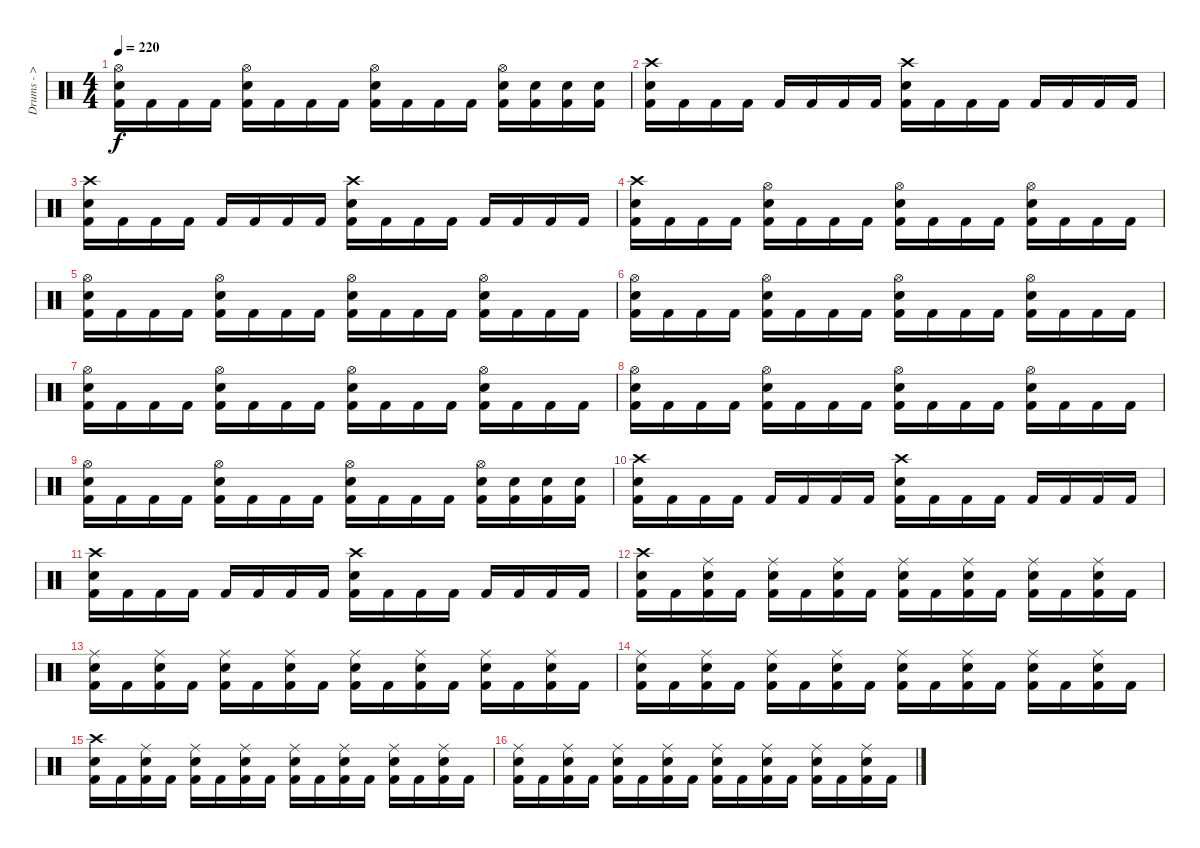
\track ("Drums - > Nicholas" "Drums - > ") {instrument percussion}
\staff {score}
\articulation defaults
\ts (4 4)
\tempo 220
\clef neutral
\ks c
("Kick (hit) 2" "Snare (hit) 2" "Hi-Hat (open)").16{dy f} "Kick (hit) 2".16 "Kick (hit) 2".16 "Kick (hit) 2".16 ("Kick (hit) 2" "Snare (hit) 2" "Hi-Hat (open)").16 "Kick (hit) 2".16 "Kick (hit) 2".16 "Kick (hit) 2".16 ("Kick (hit) 2" "Snare (hit) 2" "Hi-Hat (open)").16 "Kick (hit) 2".16 "Kick (hit) 2".16 "Kick (hit) 2".16 ("Kick (hit) 2" "Snare (hit) 2" "Hi-Hat (open)").16 ("Kick (hit) 2" "Snare (hit) 2").16 ("Kick (hit) 2" "Snare (hit) 2").16 ("Kick (hit) 2" "Snare (hit) 2").16 |
("Kick (hit) 2" "Snare (hit) 2" "Crash high (hit)").16 "Kick (hit) 2".16 "Kick (hit) 2".16 "Kick (hit) 2".16 "Kick (hit) 2".16 "Kick (hit) 2".16 "Kick (hit) 2".16 "Kick (hit) 2".16 ("Kick (hit) 2" "Snare (hit) 2" "Crash high (hit)").16 "Kick (hit) 2".16 "Kick (hit) 2".16 "Kick (hit) 2".16 "Kick (hit) 2".16 "Kick (hit) 2".16 "Kick (hit) 2".16 "Kick (hit) 2".16 |
("Kick (hit) 2" "Snare (hit) 2" "Crash high (hit)").16 "Kick (hit) 2".16 "Kick (hit) 2".16 "Kick (hit) 2".16 "Kick (hit) 2".16 "Kick (hit) 2".16 "Kick (hit) 2".16 "Kick (hit) 2".16 ("Kick (hit) 2" "Snare (hit) 2" "Crash high (hit)").16 "Kick (hit) 2".16 "Kick (hit) 2".16 "Kick (hit) 2".16 "Kick (hit) 2".16 "Kick (hit) 2".16 "Kick (hit) 2".16 "Kick (hit) 2".16 |
("Kick (hit) 2" "Snare (hit) 2" "Crash high (hit)").16 "Kick (hit) 2".16 "Kick (hit) 2".16 "Kick (hit) 2".16 ("Kick (hit) 2" "Snare (hit) 2" "Hi-Hat (open)").16 "Kick (hit) 2".16 "Kick (hit) 2".16 "Kick (hit) 2".16 ("Kick (hit) 2" "Snare (hit) 2" "Hi-Hat (open)").16 "Kick (hit) 2".16 "Kick (hit) 2".16 "Kick (hit) 2".16 ("Kick (hit) 2" "Snare (hit) 2" "Hi-Hat (open)").16 "Kick (hit) 2".16 "Kick (hit) 2".16 "Kick (hit) 2".16 |
("Kick (hit) 2" "Snare (hit) 2" "Hi-Hat (open)").16 "Kick (hit) 2".16 "Kick (hit) 2".16 "Kick (hit) 2".16 ("Kick (hit) 2" "Snare (hit) 2" "Hi-Hat (open)").16 "Kick (hit) 2".16 "Kick (hit) 2".16 "Kick (hit) 2".16 ("Kick (hit) 2" "Snare (hit) 2" "Hi-Hat (open)").16 "Kick (hit) 2".16 "Kick (hit) 2".16 "Kick (hit) 2".16 ("Kick (hit) 2" "Snare (hit) 2" "Hi-Hat (open)").16 "Kick (hit) 2".16 "Kick (hit) 2".16 "Kick (hit) 2".16 |
("Kick (hit) 2" "Snare (hit) 2" "Hi-Hat (open)").16 "Kick (hit) 2".16 "Kick (hit) 2".16 "Kick (hit) 2".16 ("Kick (hit) 2" "Snare (hit) 2" "Hi-Hat (open)").16 "Kick (hit) 2".16 "Kick (hit) 2".16 "Kick (hit) 2".16 ("Kick (hit) 2" "Snare (hit) 2" "Hi-Hat (open)").16 "Kick (hit) 2".16 "Kick (hit) 2".16 "Kick (hit) 2".16 ("Kick (hit) 2" "Snare (hit) 2" "Hi-Hat (open)").16 "Kick (hit) 2".16 "Kick (hit) 2".16 "Kick (hit) 2".16 |
("Kick (hit) 2" "Snare (hit) 2" "Hi-Hat (open)").16 "Kick (hit) 2".16 "Kick (hit) 2".16 "Kick (hit) 2".16 ("Kick (hit) 2" "Snare (hit) 2" "Hi-Hat (open)").16 "Kick (hit) 2".16 "Kick (hit) 2".16 "Kick (hit) 2".16 ("Kick (hit) 2" "Snare (hit) 2" "Hi-Hat (open)").16 "Kick (hit) 2".16 "Kick (hit) 2".16 "Kick (hit) 2".16 ("Kick (hit) 2" "Snare (hit) 2" "Hi-Hat (open)").16 "Kick (hit) 2".16 "Kick (hit) 2".16 "Kick (hit) 2".16 |
("Kick (hit) 2" "Snare (hit) 2" "Hi-Hat (open)").16 "Kick (hit) 2".16 "Kick (hit) 2".16 "Kick (hit) 2".16 ("Kick (hit) 2" "Snare (hit) 2" "Hi-Hat (open)").16 "Kick (hit) 2".16 "Kick (hit) 2".16 "Kick (hit) 2".16 ("Kick (hit) 2" "Snare (hit) 2" "Hi-Hat (open)").16 "Kick (hit) 2".16 "Kick (hit) 2".16 "Kick (hit) 2".16 ("Kick (hit) 2" "Snare (hit) 2" "Hi-Hat (open)").16 "Kick (hit) 2".16 "Kick (hit) 2".16 "Kick (hit) 2".16 |
("Kick (hit) 2" "Snare (hit) 2" "Hi-Hat (open)").16 "Kick (hit) 2".16 "Kick (hit) 2".16 "Kick (hit) 2".16 ("Kick (hit) 2" "Snare (hit) 2" "Hi-Hat (open)").16 "Kick (hit) 2".16 "Kick (hit) 2".16 "Kick (hit) 2".16 ("Kick (hit) 2" "Snare (hit) 2" "Hi-Hat (open)").16 "Kick (hit) 2".16 "Kick (hit) 2".16 "Kick (hit) 2".16 ("Kick (hit) 2" "Snare (hit) 2" "Hi-Hat (open)").16 ("Kick (hit) 2" "Snare (hit) 2").16 ("Kick (hit) 2" "Snare (hit) 2").16 ("Kick (hit) 2" "Snare (hit) 2").16 |
("Kick (hit) 2" "Snare (hit) 2" "Crash high (hit)").16 "Kick (hit) 2".16 "Kick (hit) 2".16 "Kick (hit) 2".16 "Kick (hit) 2".16 "Kick (hit) 2".16 "Kick (hit) 2".16 "Kick (hit) 2".16 ("Kick (hit) 2" "Snare (hit) 2" "Crash high (hit)").16 "Kick (hit) 2".16 "Kick (hit) 2".16 "Kick (hit) 2".16 "Kick (hit) 2".16 "Kick (hit) 2".16 "Kick (hit) 2".16 "Kick (hit) 2".16 |
("Kick (hit) 2" "Snare (hit) 2" "Crash high (hit)").16 "Kick (hit) 2".16 "Kick (hit) 2".16 "Kick (hit) 2".16 "Kick (hit) 2".16 "Kick (hit) 2".16 "Kick (hit) 2".16 "Kick (hit) 2".16 ("Kick (hit) 2" "Snare (hit) 2" "Crash high (hit)").16 "Kick (hit) 2".16 "Kick (hit) 2".16 "Kick (hit) 2".16 "Kick (hit) 2".16 "Kick (hit) 2".16 "Kick (hit) 2".16 "Kick (hit) 2".16 |
("Kick (hit) 2" "Snare (hit) 2" "Crash high (hit)").16 "Kick (hit) 2".16 ("Kick (hit) 2" "Snare (hit) 2" "Ride (middle)").16 "Kick (hit) 2".16 ("Kick (hit) 2" "Snare (hit) 2" "Ride (middle)").16 "Kick (hit) 2".16 ("Kick (hit) 2" "Snare (hit) 2" "Ride (middle)").16 "Kick (hit) 2".16 ("Kick (hit) 2" "Snare (hit) 2" "Ride (middle)").16 "Kick (hit) 2".16 ("Kick (hit) 2" "Snare (hit) 2" "Ride (middle)").16 "Kick (hit) 2".16 ("Kick (hit) 2" "Snare (hit) 2" "Ride (middle)").16 "Kick (hit) 2".16 ("Kick (hit) 2" "Snare (hit) 2" "Ride (middle)").16 "Kick (hit) 2".16 |
("Kick (hit) 2" "Snare (hit) 2" "Ride (middle)").16 "Kick (hit) 2".16 ("Kick (hit) 2" "Snare (hit) 2" "Ride (middle)").16 "Kick (hit) 2".16 ("Kick (hit) 2" "Snare (hit) 2" "Ride (middle)").16 "Kick (hit) 2".16 ("Kick (hit) 2" "Snare (hit) 2" "Ride (middle)").16 "Kick (hit) 2".16 ("Kick (hit) 2" "Snare (hit) 2" "Ride (middle)").16 "Kick (hit) 2".16 ("Kick (hit) 2" "Snare (hit) 2" "Ride (middle)").16 "Kick (hit) 2".16 ("Kick (hit) 2" "Snare (hit) 2" "Ride (middle)").16 "Kick (hit) 2".16 ("Kick (hit) 2" "Snare (hit) 2" "Ride (middle)").16 "Kick (hit) 2".16 |
("Kick (hit) 2" "Snare (hit) 2" "Ride (middle)").16 "Kick (hit) 2".16 ("Kick (hit) 2" "Snare (hit) 2" "Ride (middle)").16 "Kick (hit) 2".16 ("Kick (hit) 2" "Snare (hit) 2" "Ride (middle)").16 "Kick (hit) 2".16 ("Kick (hit) 2" "Snare (hit) 2" "Ride (middle)").16 "Kick (hit) 2".16 ("Kick (hit) 2" "Snare (hit) 2" "Ride (middle)").16 "Kick (hit) 2".16 ("Kick (hit) 2" "Snare (hit) 2" "Ride (middle)").16 "Kick (hit) 2".16 ("Kick (hit) 2" "Snare (hit) 2" "Ride (middle)").16 "Kick (hit) 2".16 ("Kick (hit) 2" "Snare (hit) 2" "Ride (middle)").16 "Kick (hit) 2".16 |
("Kick (hit) 2" "Snare (hit) 2" "Crash high (hit)").16 "Kick (hit) 2".16 ("Kick (hit) 2" "Snare (hit) 2" "Ride (middle)").16 "Kick (hit) 2".16 ("Kick (hit) 2" "Snare (hit) 2" "Ride (middle)").16 "Kick (hit) 2".16 ("Kick (hit) 2" "Snare (hit) 2" "Ride (middle)").16 "Kick (hit) 2".16 ("Kick (hit) 2" "Snare (hit) 2" "Ride (middle)").16 "Kick (hit) 2".16 ("Kick (hit) 2" "Snare (hit) 2" "Ride (middle)").16 "Kick (hit) 2".16 ("Kick (hit) 2" "Snare (hit) 2" "Ride (middle)").16 "Kick (hit) 2".16 ("Kick (hit) 2" "Snare (hit) 2" "Ride (middle)").16 "Kick (hit) 2".16 |
("Kick (hit) 2" "Snare (hit) 2" "Ride (middle)").16 "Kick (hit) 2".16 ("Kick (hit) 2" "Snare (hit) 2" "Ride (middle)").16 "Kick (hit) 2".16 ("Kick (hit) 2" "Snare (hit) 2" "Ride (middle)").16 "Kick (hit) 2".16 ("Kick (hit) 2" "Snare (hit) 2" "Ride (middle)").16 "Kick (hit) 2".16 ("Kick (hit) 2" "Snare (hit) 2" "Ride (middle)").16 "Kick (hit) 2".16 ("Kick (hit) 2" "Snare (hit) 2" "Ride (middle)").16 "Kick (hit) 2".16 ("Kick (hit) 2" "Snare (hit) 2" "Ride (middle)").16 "Kick (hit) 2".16 ("Kick (hit) 2" "Snare (hit) 2" "Ride (middle)").16 "Kick (hit) 2".16
